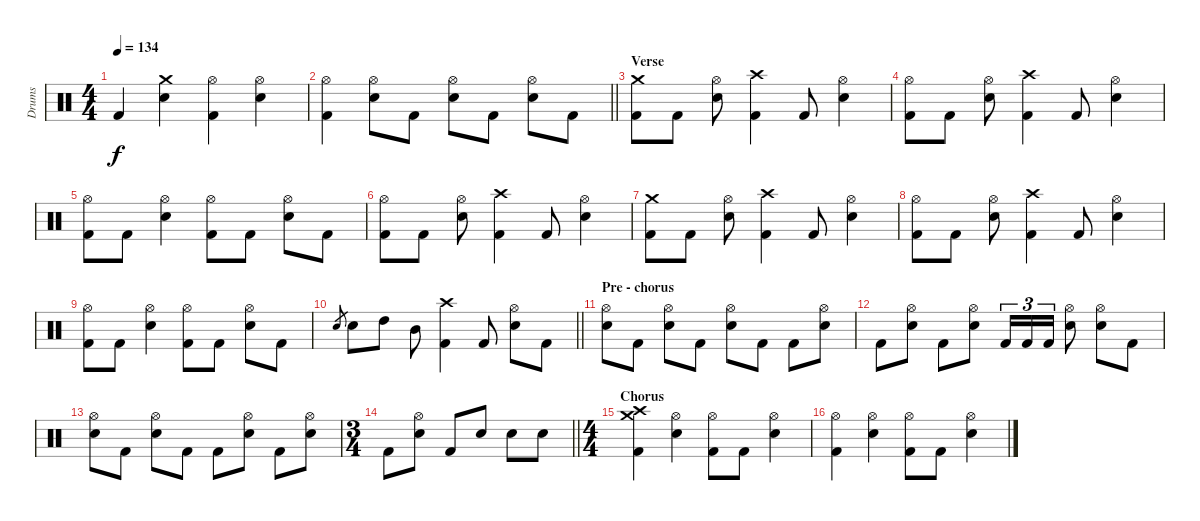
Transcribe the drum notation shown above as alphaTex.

\track ("Drums" "Drums") {instrument percussion}
\staff {score}
\articulation defaults
\ts (4 4)
\tempo 134
\clef neutral
\ks c "Kick (hit) 2".4{dy f}
("Crash medium (hit)" "Snare (hit) 2").4 ("Hi-Hat (open)" "Kick (hit) 2").4 ("Hi-Hat (open)" "Snare (hit) 2").4 |
\barLineRight lightlight
("Hi-Hat (open)" "Kick (hit) 2").4 ("Hi-Hat (open)" "Snare (hit) 2").8 "Kick (hit) 2".8 ("Hi-Hat (open)" "Snare (hit) 2").8 "Kick (hit) 2".8 ("Hi-Hat (open)" "Snare (hit) 2").8 "Kick (hit) 2".8 |
\section ("" "Verse")
("Crash medium (hit)" "Kick (hit) 2").8 "Kick (hit) 2".8 ("Hi-Hat (open)" "Snare (hit) 2").8 ("Crash high (hit)" "Kick (hit) 2").4 "Kick (hit) 2".8 ("Hi-Hat (open)" "Snare (hit) 2").4 |
("Hi-Hat (open)" "Kick (hit) 2").8 "Kick (hit) 2".8 ("Hi-Hat (open)" "Snare (hit) 2").8 ("Crash high (hit)" "Kick (hit) 2").4 "Kick (hit) 2".8 ("Hi-Hat (open)" "Snare (hit) 2").4 |
("Hi-Hat (open)" "Kick (hit) 2").8 "Kick (hit) 2".8 ("Hi-Hat (open)" "Snare (hit) 2").4 ("Hi-Hat (open)" "Kick (hit) 2").8 "Kick (hit) 2".8 ("Hi-Hat (open)" "Snare (hit) 2").8 "Kick (hit) 2".8 |
("Hi-Hat (open)" "Kick (hit) 2").8 "Kick (hit) 2".8 ("Hi-Hat (open)" "Snare (hit) 2").8 ("Crash high (hit)" "Kick (hit) 2").4 "Kick (hit) 2".8 ("Hi-Hat (open)" "Snare (hit) 2").4 |
("Crash medium (hit)" "Kick (hit) 2").8 "Kick (hit) 2".8 ("Hi-Hat (open)" "Snare (hit) 2").8 ("Crash high (hit)" "Kick (hit) 2").4 "Kick (hit) 2".8 ("Hi-Hat (open)" "Snare (hit) 2").4 |
("Hi-Hat (open)" "Kick (hit) 2").8 "Kick (hit) 2".8 ("Hi-Hat (open)" "Snare (hit) 2").8 ("Crash high (hit)" "Kick (hit) 2").4 "Kick (hit) 2".8 ("Hi-Hat (open)" "Snare (hit) 2").4 |
("Hi-Hat (open)" "Kick (hit) 2").8 "Kick (hit) 2".8 ("Hi-Hat (open)" "Snare (hit) 2").4 ("Hi-Hat (open)" "Kick (hit) 2").8 "Kick (hit) 2".8 ("Hi-Hat (open)" "Snare (hit) 2").8 "Kick (hit) 2".8 |
\barLineRight lightlight "Snare (hit) 2".8{gr} "Snare (hit) 2".8 "High Tom (hit)".8 "Mid Tom (hit)".8
("Crash high (hit)" "Kick (hit) 2").4 "Kick (hit) 2".8 ("Hi-Hat (open)" "Snare (hit) 2").8 "Kick (hit) 2".8 |
\section ("" "Pre - chorus")
("Hi-Hat (open)" "Snare (hit) 2").8 "Kick (hit) 2".8 ("Hi-Hat (open)" "Snare (hit) 2").8 "Kick (hit) 2".8 ("Hi-Hat (open)" "Snare (hit) 2").8 "Kick (hit) 2".8 "Kick (hit) 2".8 ("Hi-Hat (open)" "Snare (hit) 2").8 |
"Kick (hit) 2".8 ("Hi-Hat (open)" "Snare (hit) 2").8 "Kick (hit) 2".8 ("Hi-Hat (open)" "Snare (hit) 2").8 "Kick (hit) 2".16{tu (3 2)} "Kick (hit) 2".16{tu (3 2)} "Kick (hit) 2".16{tu (3 2)} ("Hi-Hat (open)" "Snare (hit) 2").8 ("Hi-Hat (open)" "Snare (hit) 2").8 "Kick (hit) 2".8 |
("Hi-Hat (open)" "Snare (hit) 2").8 "Kick (hit) 2".8 ("Hi-Hat (open)" "Snare (hit) 2").8 "Kick (hit) 2".8 "Kick (hit) 2".8 ("Hi-Hat (open)" "Snare (hit) 2").8 "Kick (hit) 2".8 ("Hi-Hat (open)" "Snare (hit) 2").8 |
\ts (3 4)
\barLineRight lightlight "Kick (hit) 2".8
("Hi-Hat (open)" "Snare (hit) 2").8 "Kick (hit) 2".8 "Snare (hit) 2".8 "Snare (hit) 2".8 "Snare (hit) 2".8 |
\ts (4 4)
\section ("" "Chorus")
("Crash medium (hit)" "Crash high (hit)" "Kick (hit) 2").4 ("Hi-Hat (open)" "Snare (hit) 2").4 ("Hi-Hat (open)" "Kick (hit) 2").8 "Kick (hit) 2".8 ("Hi-Hat (open)" "Snare (hit) 2").4 |
("Hi-Hat (open)" "Kick (hit) 2").4 ("Hi-Hat (open)" "Snare (hit) 2").4 ("Hi-Hat (open)" "Kick (hit) 2").8 "Kick (hit) 2".8 ("Hi-Hat (open)" "Snare (hit) 2").4
